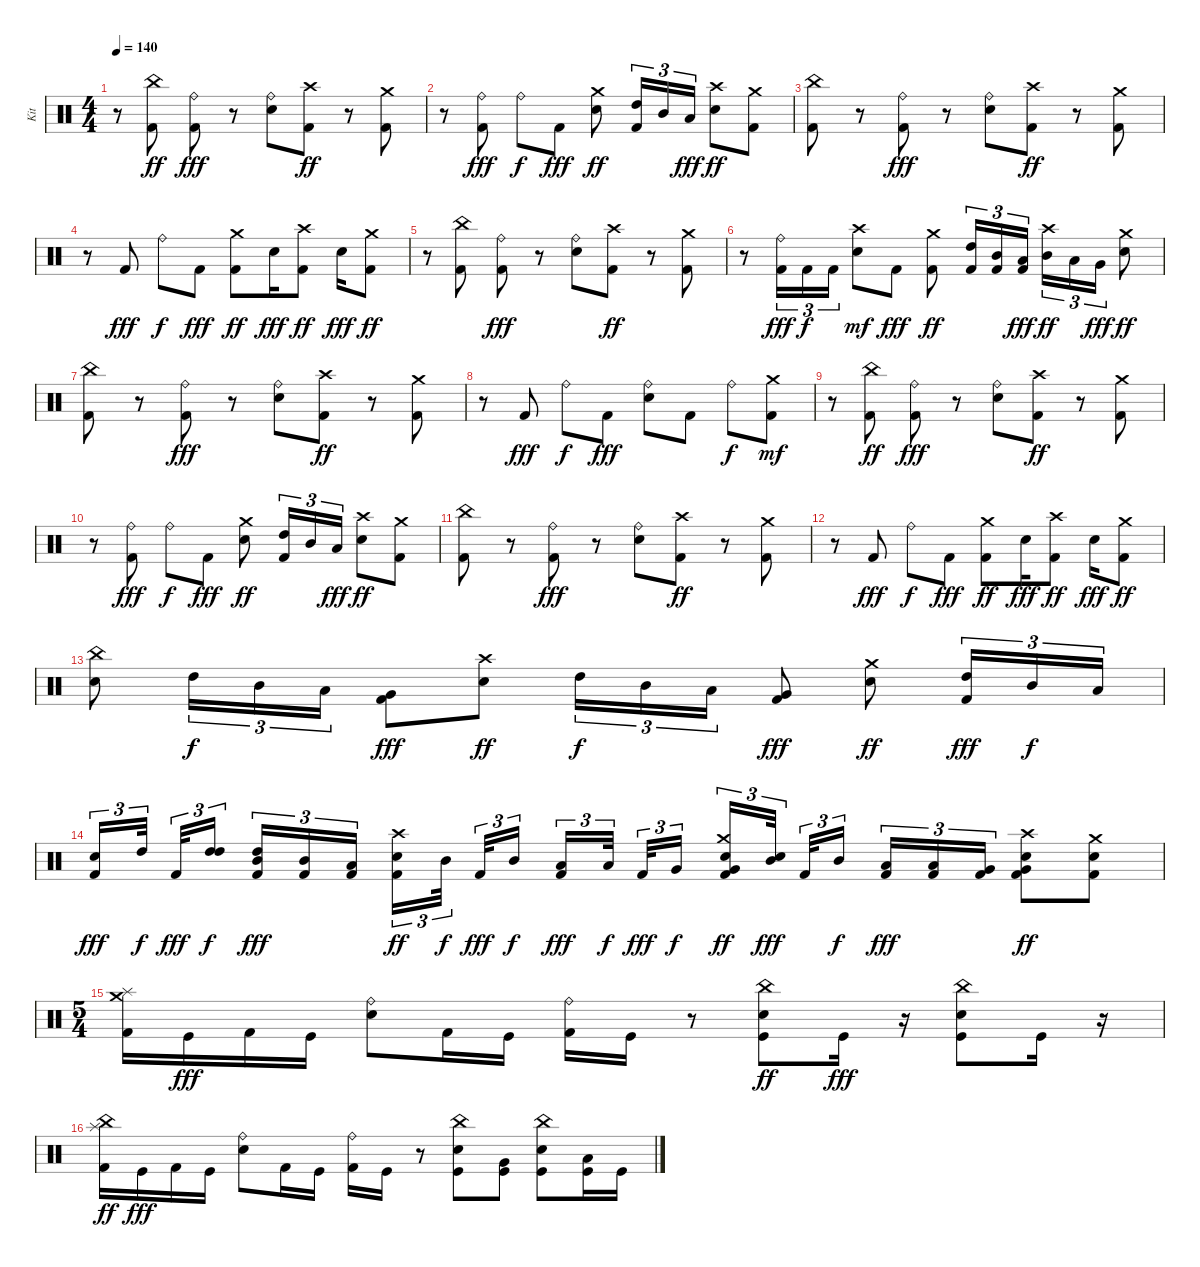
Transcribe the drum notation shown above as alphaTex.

\track ("Kit" "Kit") {instrument percussion}
\staff {score}
\articulation defaults
\ts (4 4)
\tempo 140
\clef neutral
\ks c
r.8{dy mf} ("Kick (hit) 2" "China (hit)").8{dy ff} ("Kick (hit) 2" "Ride (bell)").8{dy fff} r.8 ("Snare (hit) 2" "Ride (bell)").8 ("Kick (hit) 2" "Crash high (hit)").8{dy ff} r.8 ("Kick (hit) 2" "Crash medium (hit)").8 |
r.8 ("Kick (hit) 2" "Ride (bell)").8{dy fff} "Ride (bell)".8{dy f} "Kick (hit) 2".8{dy fff} ("Snare (hit) 2" "Crash medium (hit)").8{dy ff} ("Kick (hit) 2" "High Tom (hit)").16{tu (3 2)} "Mid Tom (hit)".16{tu (3 2)} "Low Tom (hit)".16{tu (3 2) dy fff} ("Snare (hit) 2" "Crash high (hit)").8{dy ff} ("Kick (hit) 2" "Crash medium (hit)").8 |
("Kick (hit) 2" "China (hit)").8 r.8 ("Kick (hit) 2" "Ride (bell)").8{dy fff} r.8 ("Snare (hit) 2" "Ride (bell)").8 ("Kick (hit) 2" "Crash high (hit)").8{dy ff} r.8 ("Kick (hit) 2" "Crash medium (hit)").8 |
r.8 "Kick (hit) 2".8{dy fff} "Ride (bell)".8{dy f} "Kick (hit) 2".8{dy fff} ("Kick (hit) 2" "Crash medium (hit)").8{dy ff} "Snare (hit) 2".16{dy fff} ("Kick (hit) 2" "Crash high (hit)").8{dy ff} "Snare (hit) 2".16{dy fff} ("Kick (hit) 2" "Crash medium (hit)").8{dy ff} |
r.8 ("Kick (hit) 2" "China (hit)").8 ("Kick (hit) 2" "Ride (bell)").8{dy fff} r.8 ("Snare (hit) 2" "Ride (bell)").8 ("Kick (hit) 2" "Crash high (hit)").8{dy ff} r.8 ("Kick (hit) 2" "Crash medium (hit)").8 |
r.8 ("Kick (hit) 2" "Ride (bell)").16{tu (3 2) dy fff} "Kick (hit) 2".16{tu (3 2) dy f} "Kick (hit) 2".16{tu (3 2)} ("Snare (hit) 2" "Crash high (hit)").8{dy mf} "Kick (hit) 2".8{dy fff} ("Kick (hit) 2" "Crash medium (hit)").8{dy ff} ("Kick (hit) 2" "High Tom (hit)").16{tu (3 2)} ("Kick (hit) 2" "Mid Tom (hit)").16{tu (3 2)} ("Kick (hit) 2" "Low Tom (hit)").16{tu (3 2) dy fff} ("Mid Tom (hit)" "Crash high (hit)").16{tu (3 2) dy ff} "Low Tom (hit)".16{tu (3 2)} "Very Low Tom (hit)".16{tu (3 2) dy fff} ("Snare (hit) 2" "Crash medium (hit)").8{dy ff} |
("Kick (hit) 2" "China (hit)").8 r.8 ("Kick (hit) 2" "Ride (bell)").8{dy fff} r.8 ("Snare (hit) 2" "Ride (bell)").8 ("Kick (hit) 2" "Crash high (hit)").8{dy ff} r.8 ("Kick (hit) 2" "Crash medium (hit)").8 |
r.8 "Kick (hit) 2".8{dy fff} "Ride (bell)".8{dy f} "Kick (hit) 2".8{dy fff} ("Snare (hit) 2" "Ride (bell)").8 "Kick (hit) 2".8 "Ride (bell)".8{dy f} ("Kick (hit) 2" "Crash medium (hit)").8{dy mf} |
r.8 ("Kick (hit) 2" "China (hit)").8{dy ff} ("Kick (hit) 2" "Ride (bell)").8{dy fff} r.8 ("Snare (hit) 2" "Ride (bell)").8 ("Kick (hit) 2" "Crash high (hit)").8{dy ff} r.8 ("Kick (hit) 2" "Crash medium (hit)").8 |
r.8 ("Kick (hit) 2" "Ride (bell)").8{dy fff} "Ride (bell)".8{dy f} "Kick (hit) 2".8{dy fff} ("Snare (hit) 2" "Crash medium (hit)").8{dy ff} ("Kick (hit) 2" "High Tom (hit)").16{tu (3 2)} "Mid Tom (hit)".16{tu (3 2)} "Low Tom (hit)".16{tu (3 2) dy fff} ("Snare (hit) 2" "Crash high (hit)").8{dy ff} ("Kick (hit) 2" "Crash medium (hit)").8 |
("Kick (hit) 2" "China (hit)").8 r.8 ("Kick (hit) 2" "Ride (bell)").8{dy fff} r.8 ("Snare (hit) 2" "Ride (bell)").8 ("Kick (hit) 2" "Crash high (hit)").8{dy ff} r.8 ("Kick (hit) 2" "Crash medium (hit)").8 |
r.8 "Kick (hit) 2".8{dy fff} "Ride (bell)".8{dy f} "Kick (hit) 2".8{dy fff} ("Kick (hit) 2" "Crash medium (hit)").8{dy ff} "Snare (hit) 2".16{dy fff} ("Kick (hit) 2" "Crash high (hit)").8{dy ff} "Snare (hit) 2".16{dy fff} ("Kick (hit) 2" "Crash medium (hit)").8{dy ff} |
("Snare (hit) 2" "China (hit)").8 "High Tom (hit)".16{tu (3 2) dy f} "Mid Tom (hit)".16{tu (3 2)} "Low Tom (hit)".16{tu (3 2)} ("Kick (hit) 2" "Very Low Tom (hit)").8{dy fff} ("Snare (hit) 2" "Crash high (hit)").8{dy ff} "High Tom (hit)".16{tu (3 2) dy f} "Mid Tom (hit)".16{tu (3 2)} "Low Tom (hit)".16{tu (3 2)} ("Kick (hit) 2" "Very Low Tom (hit)").8{dy fff} ("Snare (hit) 2" "Crash medium (hit)").8{dy ff} ("Kick (hit) 2" "High Tom (hit)").16{tu (3 2) dy fff} "Mid Tom (hit)".16{tu (3 2) dy f} "Low Tom (hit)".16{tu (3 2)} |
("Kick (hit) 2" "Snare (hit) 2").16{tu (3 2) dy fff} "High Tom (hit)".32{tu (3 2) dy f beam splitsecondary} "Kick (hit) 2".32{tu (3 2) dy fff} ("High Tom (hit)" "High Tom (hit)").16{tu (3 2) dy f beam splitsecondary} ("Kick (hit) 2" "Mid Tom (hit)" "High Tom (hit)").16{tu (3 2) dy fff} ("Kick (hit) 2" "Mid Tom (hit)").16{tu (3 2)} ("Kick (hit) 2" "Low Tom (hit)").16{tu (3 2)} ("Kick (hit) 2" "Snare (hit) 2" "Crash high (hit)").16{tu (3 2) dy ff} "Mid Tom (hit)".32{tu (3 2) dy f beam splitsecondary} "Kick (hit) 2".32{tu (3 2) dy fff} "Mid Tom (hit)".16{tu (3 2) dy f beam splitsecondary} ("Kick (hit) 2" "Low Tom (hit)").16{tu (3 2) dy fff} "Low Tom (hit)".32{tu (3 2) dy f beam splitsecondary} "Kick (hit) 2".32{tu (3 2) dy fff} "Very Low Tom (hit)".16{tu (3 2) dy f} ("Kick (hit) 2" "Snare (hit) 2" "Very Low Tom (hit)" "Crash medium (hit)").16{tu (3 2) dy ff} ("Snare (hit) 2" "Mid Tom (hit)").32{tu (3 2) dy fff beam splitsecondary} "Kick (hit) 2".32{tu (3 2)} "Mid Tom (hit)".16{tu (3 2) dy f beam splitsecondary} ("Kick (hit) 2" "Low Tom (hit)").16{tu (3 2) dy fff} ("Kick (hit) 2" "Low Tom (hit)").16{tu (3 2)} ("Kick (hit) 2" "Very Low Tom (hit)").16{tu (3 2)} ("Kick (hit) 2" "Snare (hit) 2" "Very Low Tom (hit)" "Crash high (hit)").8{dy ff} ("Kick (hit) 2" "Snare (hit) 2" "Crash medium (hit)").8 |
\ts (5 4)
("Kick (hit) 2" "Splash (hit)" "Crash medium (hit)").16 "Kick (hit)".16{dy fff} "Kick (hit) 2".16 "Kick (hit)".16 ("Snare (hit) 2" "Ride (bell)").8 "Kick (hit) 2".16 "Kick (hit)".16 ("Kick (hit) 2" "Ride (bell)").16 "Kick (hit)".16 r.8 ("Kick (hit)" "Snare (hit) 2" "China (hit)").8{dy ff} "Kick (hit)".16{dy fff} r.16 ("Kick (hit)" "Snare (hit) 2" "China (hit)").8 "Kick (hit)".16 r.16 |
("Kick (hit) 2" "China (hit)" "Splash (hit)").16{dy ff} "Kick (hit)".16{dy fff} "Kick (hit) 2".16 "Kick (hit)".16 ("Snare (hit) 2" "Ride (bell)").8 "Kick (hit) 2".16 "Kick (hit)".16 ("Kick (hit) 2" "Ride (bell)").16 "Kick (hit)".16 r.8 ("Kick (hit)" "Snare (hit) 2" "China (hit)").8 ("Kick (hit)" "Very Low Tom (hit)").8 ("Kick (hit)" "Snare (hit) 2" "China (hit)").8 ("Kick (hit)" "Low Floor Tom (hit)").16 "Kick (hit)".16
